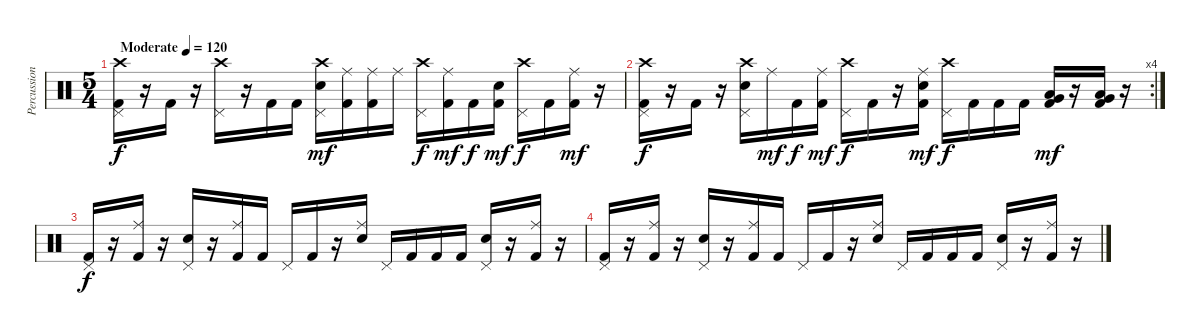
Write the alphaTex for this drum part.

\track ("Percussion" "Percussion") {instrument percussion}
\staff {score}
\articulation defaults
\ts (5 4)
\tempo (120 "Moderate")
\clef neutral
\ks c
("Crash high (hit)" "Pedal Hi-Hat (hit)" "Kick (hit) 2").16{dy f} r.16 "Kick (hit) 2".16 r.16 ("Crash high (hit)" "Pedal Hi-Hat (hit)").16 r.16 "Kick (hit) 2".16 "Kick (hit) 2".16 ("Crash high (hit)" "Electric Snare (hit)" "Pedal Hi-Hat (hit)").16{dy mf} ("Ride (middle)" "Kick (hit) 2").16 ("Ride (middle)" "Kick (hit) 2").16 "Ride (middle)".16 ("Crash high (hit)" "Pedal Hi-Hat (hit)").16{dy f} ("Ride (middle)" "Kick (hit) 2").16{dy mf} "Kick (hit) 2".16{dy f} ("Electric Snare (hit)" "Kick (hit) 2").16{dy mf} ("Crash high (hit)" "Pedal Hi-Hat (hit)").16{dy f} "Kick (hit) 2".16 ("Ride (middle)" "Kick (hit) 2").16{dy mf} r.16 |
\rc 4
("Crash high (hit)" "Pedal Hi-Hat (hit)" "Kick (hit) 2").16{dy f} r.16 "Kick (hit) 2".16 r.16 ("Crash high (hit)" "Electric Snare (hit)" "Pedal Hi-Hat (hit)").16 "Ride (middle)".16{dy mf} "Kick (hit) 2".16{dy f} ("Ride (middle)" "Kick (hit) 2").16{dy mf} ("Crash high (hit)" "Pedal Hi-Hat (hit)").16{dy f} "Kick (hit) 2".16 r.16 ("Ride (middle)" "Electric Snare (hit)" "Kick (hit) 2").16{dy mf} ("Crash high (hit)" "Pedal Hi-Hat (hit)").16{dy f} "Kick (hit) 2".16 "Kick (hit) 2".16 "Kick (hit) 2".16 ("Very Low Tom (hit)" "Low Floor Tom (hit)" "Kick (hit) 2").16{dy mf} r.16 ("Very Low Tom (hit)" "Low Floor Tom (hit)" "Kick (hit) 2").16 r.16 |
("Pedal Hi-Hat (hit)" "Kick (hit) 2").16{dy f} r.16 ("Ride (middle)" "Kick (hit) 2").16 r.16 ("Electric Snare (hit)" "Pedal Hi-Hat (hit)").16 r.16 ("Ride (middle)" "Kick (hit) 2").16 "Kick (hit) 2".16 "Pedal Hi-Hat (hit)".16 "Kick (hit) 2".16 r.16 ("Ride (middle)" "Electric Snare (hit)").16 "Pedal Hi-Hat (hit)".16 "Kick (hit) 2".16 "Kick (hit) 2".16 "Kick (hit) 2".16 ("Electric Snare (hit)" "Pedal Hi-Hat (hit)").16 r.16 ("Ride (middle)" "Kick (hit) 2").16 r.16 |
("Pedal Hi-Hat (hit)" "Kick (hit) 2").16 r.16 ("Ride (middle)" "Kick (hit) 2").16 r.16 ("Electric Snare (hit)" "Pedal Hi-Hat (hit)").16 r.16 ("Ride (middle)" "Kick (hit) 2").16 "Kick (hit) 2".16 "Pedal Hi-Hat (hit)".16 "Kick (hit) 2".16 r.16 ("Ride (middle)" "Electric Snare (hit)").16 "Pedal Hi-Hat (hit)".16 "Kick (hit) 2".16 "Kick (hit) 2".16 "Kick (hit) 2".16 ("Electric Snare (hit)" "Pedal Hi-Hat (hit)").16 r.16 ("Ride (middle)" "Kick (hit) 2").16 r.16
